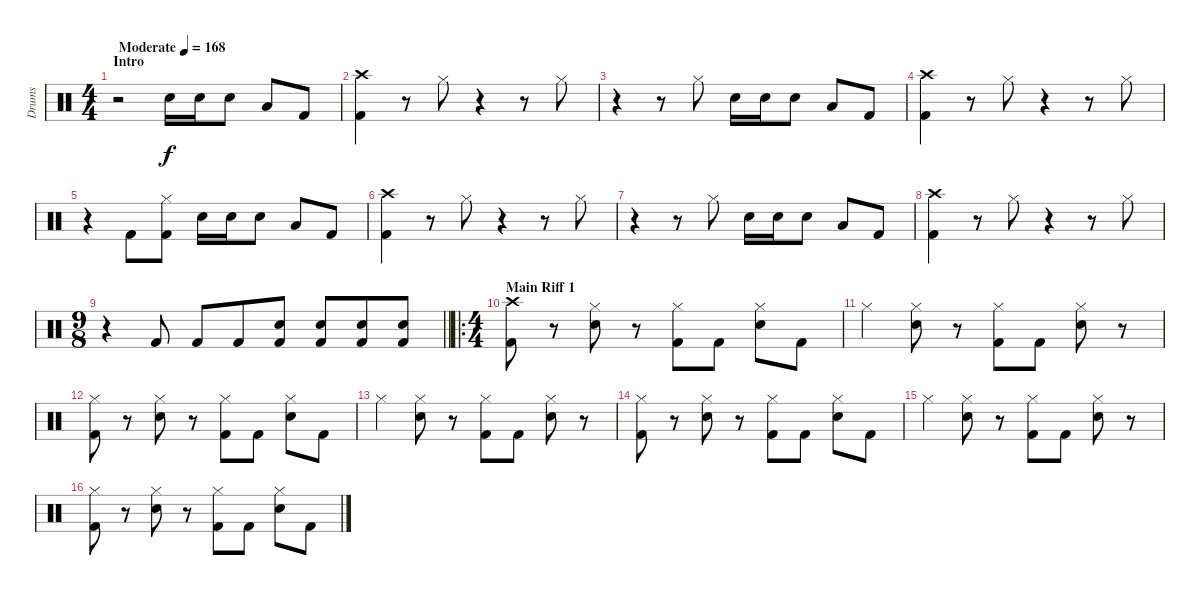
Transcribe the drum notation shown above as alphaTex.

\track ("Drums" "Drums") {instrument percussion}
\staff {score}
\articulation defaults
\ts (4 4)
\section ("" "Intro")
\tempo (168 "Moderate")
\clef neutral
\ks c
r.2{dy f} "Electric Snare (hit)".16 "Electric Snare (hit)".16 "Electric Snare (hit)".8 "Low Tom (hit)".8 "Kick (hit) 2".8 |
("Crash high (hit)" "Kick (hit) 2").4 r.8 "Hi-Hat (closed)".8 r.4 r.8 "Hi-Hat (closed)".8 |
r.4 r.8 "Hi-Hat (closed)".8 "Electric Snare (hit)".16 "Electric Snare (hit)".16 "Electric Snare (hit)".8 "Low Tom (hit)".8 "Kick (hit) 2".8 |
("Crash high (hit)" "Kick (hit) 2").4 r.8 "Hi-Hat (closed)".8 r.4 r.8 "Hi-Hat (closed)".8 |
r.4 "Kick (hit) 2".8 ("Hi-Hat (closed)" "Kick (hit) 2").8 "Electric Snare (hit)".16 "Electric Snare (hit)".16 "Electric Snare (hit)".8 "Low Tom (hit)".8 "Kick (hit) 2".8 |
("Crash high (hit)" "Kick (hit) 2").4 r.8 "Hi-Hat (closed)".8 r.4 r.8 "Hi-Hat (closed)".8 |
r.4 r.8 "Hi-Hat (closed)".8 "Electric Snare (hit)".16 "Electric Snare (hit)".16 "Electric Snare (hit)".8 "Low Tom (hit)".8 "Kick (hit) 2".8 |
("Crash high (hit)" "Kick (hit) 2").4 r.8 "Hi-Hat (closed)".8 r.4 r.8 "Hi-Hat (closed)".8 |
\ts (9 8)
\barLineRight lightlight
r.4 "Kick (hit) 2".8 "Kick (hit) 2".8 "Kick (hit) 2".8 ("Electric Snare (hit)" "Kick (hit) 2").8 ("Electric Snare (hit)" "Kick (hit) 2").8 ("Electric Snare (hit)" "Kick (hit) 2").8 ("Electric Snare (hit)" "Kick (hit) 2").8 |
\ro
\ts (4 4)
\section ("" "Main Riff 1")
("Crash high (hit)" "Kick (hit) 2").8 r.8 ("Hi-Hat (closed)" "Electric Snare (hit)").8 r.8 ("Hi-Hat (closed)" "Kick (hit) 2").8 "Kick (hit) 2".8 ("Hi-Hat (closed)" "Electric Snare (hit)").8 "Kick (hit) 2".8 |
"Hi-Hat (closed)".4 ("Hi-Hat (closed)" "Electric Snare (hit)").8 r.8 ("Hi-Hat (closed)" "Kick (hit) 2").8 "Kick (hit) 2".8 ("Hi-Hat (closed)" "Electric Snare (hit)").8 r.8 |
("Hi-Hat (closed)" "Kick (hit) 2").8 r.8 ("Hi-Hat (closed)" "Electric Snare (hit)").8 r.8 ("Hi-Hat (closed)" "Kick (hit) 2").8 "Kick (hit) 2".8 ("Hi-Hat (closed)" "Electric Snare (hit)").8 "Kick (hit) 2".8 |
"Hi-Hat (closed)".4 ("Hi-Hat (closed)" "Electric Snare (hit)").8 r.8 ("Hi-Hat (closed)" "Kick (hit) 2").8 "Kick (hit) 2".8 ("Hi-Hat (closed)" "Electric Snare (hit)").8 r.8 |
("Hi-Hat (closed)" "Kick (hit) 2").8 r.8 ("Hi-Hat (closed)" "Electric Snare (hit)").8 r.8 ("Hi-Hat (closed)" "Kick (hit) 2").8 "Kick (hit) 2".8 ("Hi-Hat (closed)" "Electric Snare (hit)").8 "Kick (hit) 2".8 |
"Hi-Hat (closed)".4 ("Hi-Hat (closed)" "Electric Snare (hit)").8 r.8 ("Hi-Hat (closed)" "Kick (hit) 2").8 "Kick (hit) 2".8 ("Hi-Hat (closed)" "Electric Snare (hit)").8 r.8 |
("Hi-Hat (closed)" "Kick (hit) 2").8 r.8 ("Hi-Hat (closed)" "Electric Snare (hit)").8 r.8 ("Hi-Hat (closed)" "Kick (hit) 2").8 "Kick (hit) 2".8 ("Hi-Hat (closed)" "Electric Snare (hit)").8 "Kick (hit) 2".8
